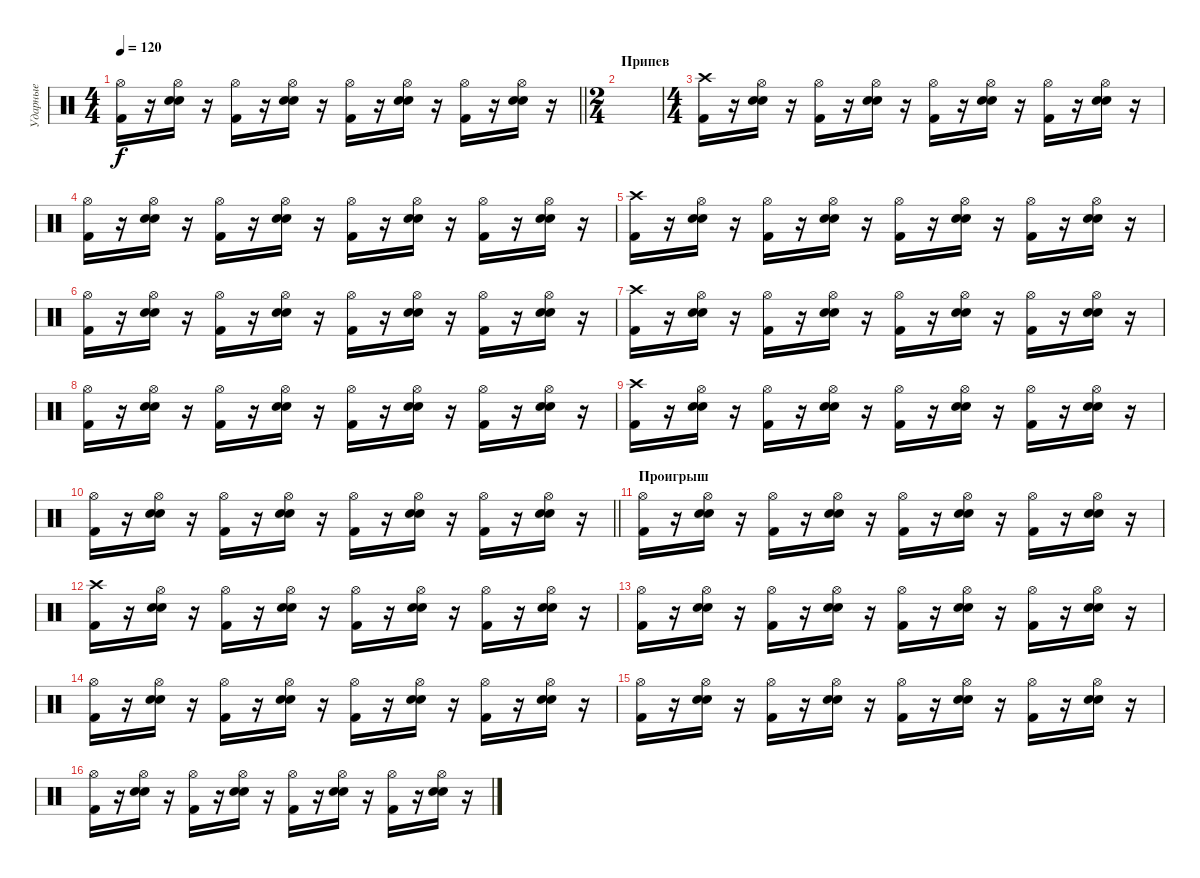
\track ("Ударные" "Ударные") {instrument percussion}
\staff {score}
\articulation defaults
\ts (4 4)
\tempo 120
\clef neutral
\barLineRight lightlight
\ks c
("Kick (hit) 2" "Hi-Hat (open)").16{dy f} r.16 ("Snare (hit) 2" "Electric Snare (hit)" "Hi-Hat (open)").16 r.16 ("Kick (hit) 2" "Hi-Hat (open)").16 r.16 ("Snare (hit) 2" "Electric Snare (hit)" "Hi-Hat (open)").16 r.16 ("Kick (hit) 2" "Hi-Hat (open)").16 r.16 ("Snare (hit) 2" "Electric Snare (hit)" "Hi-Hat (open)").16 r.16 ("Kick (hit) 2" "Hi-Hat (open)").16 r.16 ("Snare (hit) 2" "Electric Snare (hit)" "Hi-Hat (open)").16 r.16 |
\ts (2 4)
\section ("" "Припев")
|
\ts (4 4)
("Kick (hit) 2" "Crash high (hit)").16 r.16 ("Snare (hit) 2" "Electric Snare (hit)" "Hi-Hat (open)").16 r.16 ("Kick (hit) 2" "Hi-Hat (open)").16 r.16 ("Snare (hit) 2" "Electric Snare (hit)" "Hi-Hat (open)").16 r.16 ("Kick (hit) 2" "Hi-Hat (open)").16 r.16 ("Snare (hit) 2" "Electric Snare (hit)" "Hi-Hat (open)").16 r.16 ("Kick (hit) 2" "Hi-Hat (open)").16 r.16 ("Snare (hit) 2" "Electric Snare (hit)" "Hi-Hat (open)").16 r.16 |
("Kick (hit) 2" "Hi-Hat (open)").16 r.16 ("Snare (hit) 2" "Electric Snare (hit)" "Hi-Hat (open)").16 r.16 ("Kick (hit) 2" "Hi-Hat (open)").16 r.16 ("Snare (hit) 2" "Electric Snare (hit)" "Hi-Hat (open)").16 r.16 ("Kick (hit) 2" "Hi-Hat (open)").16 r.16 ("Snare (hit) 2" "Electric Snare (hit)" "Hi-Hat (open)").16 r.16 ("Kick (hit) 2" "Hi-Hat (open)").16 r.16 ("Snare (hit) 2" "Electric Snare (hit)" "Hi-Hat (open)").16 r.16 |
("Kick (hit) 2" "Crash high (hit)").16 r.16 ("Snare (hit) 2" "Electric Snare (hit)" "Hi-Hat (open)").16 r.16 ("Kick (hit) 2" "Hi-Hat (open)").16 r.16 ("Snare (hit) 2" "Electric Snare (hit)" "Hi-Hat (open)").16 r.16 ("Kick (hit) 2" "Hi-Hat (open)").16 r.16 ("Snare (hit) 2" "Electric Snare (hit)" "Hi-Hat (open)").16 r.16 ("Kick (hit) 2" "Hi-Hat (open)").16 r.16 ("Snare (hit) 2" "Electric Snare (hit)" "Hi-Hat (open)").16 r.16 |
("Kick (hit) 2" "Hi-Hat (open)").16 r.16 ("Snare (hit) 2" "Electric Snare (hit)" "Hi-Hat (open)").16 r.16 ("Kick (hit) 2" "Hi-Hat (open)").16 r.16 ("Snare (hit) 2" "Electric Snare (hit)" "Hi-Hat (open)").16 r.16 ("Kick (hit) 2" "Hi-Hat (open)").16 r.16 ("Snare (hit) 2" "Electric Snare (hit)" "Hi-Hat (open)").16 r.16 ("Kick (hit) 2" "Hi-Hat (open)").16 r.16 ("Snare (hit) 2" "Electric Snare (hit)" "Hi-Hat (open)").16 r.16 |
("Kick (hit) 2" "Crash high (hit)").16 r.16 ("Snare (hit) 2" "Electric Snare (hit)" "Hi-Hat (open)").16 r.16 ("Kick (hit) 2" "Hi-Hat (open)").16 r.16 ("Snare (hit) 2" "Electric Snare (hit)" "Hi-Hat (open)").16 r.16 ("Kick (hit) 2" "Hi-Hat (open)").16 r.16 ("Snare (hit) 2" "Electric Snare (hit)" "Hi-Hat (open)").16 r.16 ("Kick (hit) 2" "Hi-Hat (open)").16 r.16 ("Snare (hit) 2" "Electric Snare (hit)" "Hi-Hat (open)").16 r.16 |
("Kick (hit) 2" "Hi-Hat (open)").16 r.16 ("Snare (hit) 2" "Electric Snare (hit)" "Hi-Hat (open)").16 r.16 ("Kick (hit) 2" "Hi-Hat (open)").16 r.16 ("Snare (hit) 2" "Electric Snare (hit)" "Hi-Hat (open)").16 r.16 ("Kick (hit) 2" "Hi-Hat (open)").16 r.16 ("Snare (hit) 2" "Electric Snare (hit)" "Hi-Hat (open)").16 r.16 ("Kick (hit) 2" "Hi-Hat (open)").16 r.16 ("Snare (hit) 2" "Electric Snare (hit)" "Hi-Hat (open)").16 r.16 |
("Kick (hit) 2" "Crash high (hit)").16 r.16 ("Snare (hit) 2" "Electric Snare (hit)" "Hi-Hat (open)").16 r.16 ("Kick (hit) 2" "Hi-Hat (open)").16 r.16 ("Snare (hit) 2" "Electric Snare (hit)" "Hi-Hat (open)").16 r.16 ("Kick (hit) 2" "Hi-Hat (open)").16 r.16 ("Snare (hit) 2" "Electric Snare (hit)" "Hi-Hat (open)").16 r.16 ("Kick (hit) 2" "Hi-Hat (open)").16 r.16 ("Snare (hit) 2" "Electric Snare (hit)" "Hi-Hat (open)").16 r.16 |
\barLineRight lightlight
("Kick (hit) 2" "Hi-Hat (open)").16 r.16 ("Snare (hit) 2" "Electric Snare (hit)" "Hi-Hat (open)").16 r.16 ("Kick (hit) 2" "Hi-Hat (open)").16 r.16 ("Snare (hit) 2" "Electric Snare (hit)" "Hi-Hat (open)").16 r.16 ("Kick (hit) 2" "Hi-Hat (open)").16 r.16 ("Snare (hit) 2" "Electric Snare (hit)" "Hi-Hat (open)").16 r.16 ("Kick (hit) 2" "Hi-Hat (open)").16 r.16 ("Snare (hit) 2" "Electric Snare (hit)" "Hi-Hat (open)").16 r.16 |
\section ("" "Проигрыш")
("Kick (hit) 2" "Hi-Hat (open)").16 r.16 ("Snare (hit) 2" "Electric Snare (hit)" "Hi-Hat (open)").16 r.16 ("Kick (hit) 2" "Hi-Hat (open)").16 r.16 ("Snare (hit) 2" "Electric Snare (hit)" "Hi-Hat (open)").16 r.16 ("Kick (hit) 2" "Hi-Hat (open)").16 r.16 ("Snare (hit) 2" "Electric Snare (hit)" "Hi-Hat (open)").16 r.16 ("Kick (hit) 2" "Hi-Hat (open)").16 r.16 ("Snare (hit) 2" "Electric Snare (hit)" "Hi-Hat (open)").16 r.16 |
("Kick (hit) 2" "Crash high (hit)").16 r.16 ("Snare (hit) 2" "Electric Snare (hit)" "Hi-Hat (open)").16 r.16 ("Kick (hit) 2" "Hi-Hat (open)").16 r.16 ("Snare (hit) 2" "Electric Snare (hit)" "Hi-Hat (open)").16 r.16 ("Kick (hit) 2" "Hi-Hat (open)").16 r.16 ("Snare (hit) 2" "Electric Snare (hit)" "Hi-Hat (open)").16 r.16 ("Kick (hit) 2" "Hi-Hat (open)").16 r.16 ("Snare (hit) 2" "Electric Snare (hit)" "Hi-Hat (open)").16 r.16 |
("Kick (hit) 2" "Hi-Hat (open)").16 r.16 ("Snare (hit) 2" "Electric Snare (hit)" "Hi-Hat (open)").16 r.16 ("Kick (hit) 2" "Hi-Hat (open)").16 r.16 ("Snare (hit) 2" "Electric Snare (hit)" "Hi-Hat (open)").16 r.16 ("Kick (hit) 2" "Hi-Hat (open)").16 r.16 ("Snare (hit) 2" "Electric Snare (hit)" "Hi-Hat (open)").16 r.16 ("Kick (hit) 2" "Hi-Hat (open)").16 r.16 ("Snare (hit) 2" "Electric Snare (hit)" "Hi-Hat (open)").16 r.16 |
("Kick (hit) 2" "Hi-Hat (open)").16 r.16 ("Snare (hit) 2" "Electric Snare (hit)" "Hi-Hat (open)").16 r.16 ("Kick (hit) 2" "Hi-Hat (open)").16 r.16 ("Snare (hit) 2" "Electric Snare (hit)" "Hi-Hat (open)").16 r.16 ("Kick (hit) 2" "Hi-Hat (open)").16 r.16 ("Snare (hit) 2" "Electric Snare (hit)" "Hi-Hat (open)").16 r.16 ("Kick (hit) 2" "Hi-Hat (open)").16 r.16 ("Snare (hit) 2" "Electric Snare (hit)" "Hi-Hat (open)").16 r.16 |
("Kick (hit) 2" "Hi-Hat (open)").16 r.16 ("Snare (hit) 2" "Electric Snare (hit)" "Hi-Hat (open)").16 r.16 ("Kick (hit) 2" "Hi-Hat (open)").16 r.16 ("Snare (hit) 2" "Electric Snare (hit)" "Hi-Hat (open)").16 r.16 ("Kick (hit) 2" "Hi-Hat (open)").16 r.16 ("Snare (hit) 2" "Electric Snare (hit)" "Hi-Hat (open)").16 r.16 ("Kick (hit) 2" "Hi-Hat (open)").16 r.16 ("Snare (hit) 2" "Electric Snare (hit)" "Hi-Hat (open)").16 r.16 |
("Kick (hit) 2" "Hi-Hat (open)").16 r.16 ("Snare (hit) 2" "Electric Snare (hit)" "Hi-Hat (open)").16 r.16 ("Kick (hit) 2" "Hi-Hat (open)").16 r.16 ("Snare (hit) 2" "Electric Snare (hit)" "Hi-Hat (open)").16 r.16 ("Kick (hit) 2" "Hi-Hat (open)").16 r.16 ("Snare (hit) 2" "Electric Snare (hit)" "Hi-Hat (open)").16 r.16 ("Kick (hit) 2" "Hi-Hat (open)").16 r.16 ("Snare (hit) 2" "Electric Snare (hit)" "Hi-Hat (open)").16 r.16
